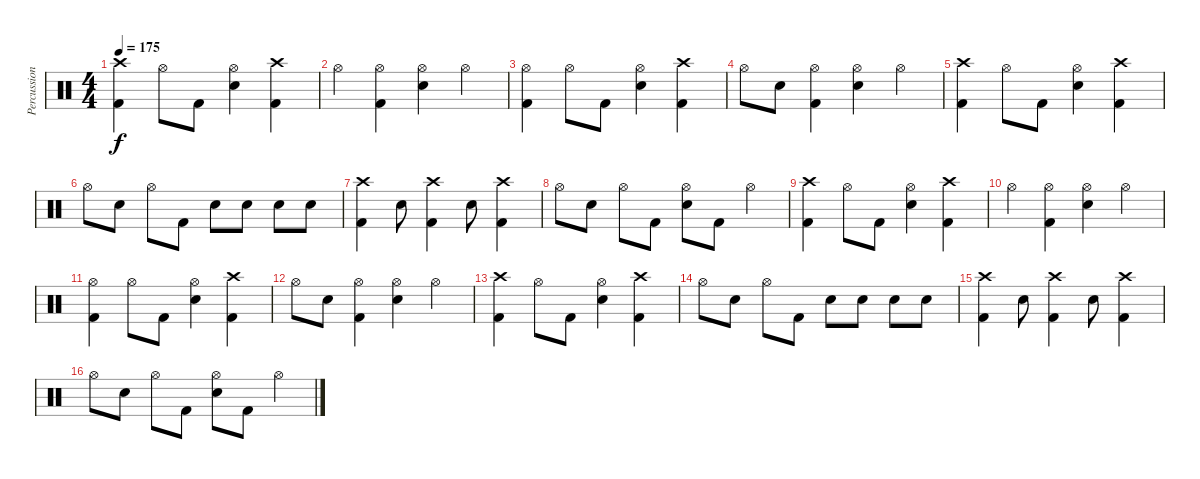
\track ("Percussion" "Percussion") {instrument percussion}
\staff {score}
\articulation defaults
\ts (4 4)
\tempo 175
\clef neutral
\ks c
("Crash high (hit)" "Kick (hit) 2").4{dy f} "Hi-Hat (open)".8 "Kick (hit) 2".8 ("Hi-Hat (open)" "Electric Snare (hit)").4 ("Crash high (hit)" "Kick (hit) 2").4 |
"Hi-Hat (open)".4 ("Hi-Hat (open)" "Kick (hit) 2").4 ("Hi-Hat (open)" "Electric Snare (hit)").4 "Hi-Hat (open)".4 |
("Hi-Hat (open)" "Kick (hit) 2").4 "Hi-Hat (open)".8 "Kick (hit) 2".8 ("Hi-Hat (open)" "Electric Snare (hit)").4 ("Crash high (hit)" "Kick (hit) 2").4 |
"Hi-Hat (open)".8 "Electric Snare (hit)".8 ("Hi-Hat (open)" "Kick (hit) 2").4 ("Hi-Hat (open)" "Electric Snare (hit)").4 "Hi-Hat (open)".4 |
("Crash high (hit)" "Kick (hit) 2").4 "Hi-Hat (open)".8 "Kick (hit) 2".8 ("Hi-Hat (open)" "Electric Snare (hit)").4 ("Crash high (hit)" "Kick (hit) 2").4 |
"Hi-Hat (open)".8 "Electric Snare (hit)".8 "Hi-Hat (open)".8 "Kick (hit) 2".8 "Electric Snare (hit)".8 "Electric Snare (hit)".8 "Electric Snare (hit)".8 "Electric Snare (hit)".8 |
("Crash high (hit)" "Kick (hit) 2").4 "Electric Snare (hit)".8 ("Crash high (hit)" "Kick (hit) 2").4 "Electric Snare (hit)".8 ("Crash high (hit)" "Kick (hit) 2").4 |
"Hi-Hat (open)".8 "Electric Snare (hit)".8 "Hi-Hat (open)".8 "Kick (hit) 2".8 ("Hi-Hat (open)" "Electric Snare (hit)").8 "Kick (hit) 2".8 "Hi-Hat (open)".4 |
("Crash high (hit)" "Kick (hit) 2").4 "Hi-Hat (open)".8 "Kick (hit) 2".8 ("Hi-Hat (open)" "Electric Snare (hit)").4 ("Crash high (hit)" "Kick (hit) 2").4 |
"Hi-Hat (open)".4 ("Hi-Hat (open)" "Kick (hit) 2").4 ("Hi-Hat (open)" "Electric Snare (hit)").4 "Hi-Hat (open)".4 |
("Hi-Hat (open)" "Kick (hit) 2").4 "Hi-Hat (open)".8 "Kick (hit) 2".8 ("Hi-Hat (open)" "Electric Snare (hit)").4 ("Crash high (hit)" "Kick (hit) 2").4 |
"Hi-Hat (open)".8 "Electric Snare (hit)".8 ("Hi-Hat (open)" "Kick (hit) 2").4 ("Hi-Hat (open)" "Electric Snare (hit)").4 "Hi-Hat (open)".4 |
("Crash high (hit)" "Kick (hit) 2").4 "Hi-Hat (open)".8 "Kick (hit) 2".8 ("Hi-Hat (open)" "Electric Snare (hit)").4 ("Crash high (hit)" "Kick (hit) 2").4 |
"Hi-Hat (open)".8 "Electric Snare (hit)".8 "Hi-Hat (open)".8 "Kick (hit) 2".8 "Electric Snare (hit)".8 "Electric Snare (hit)".8 "Electric Snare (hit)".8 "Electric Snare (hit)".8 |
("Crash high (hit)" "Kick (hit) 2").4 "Electric Snare (hit)".8 ("Crash high (hit)" "Kick (hit) 2").4 "Electric Snare (hit)".8 ("Crash high (hit)" "Kick (hit) 2").4 |
"Hi-Hat (open)".8 "Electric Snare (hit)".8 "Hi-Hat (open)".8 "Kick (hit) 2".8 ("Hi-Hat (open)" "Electric Snare (hit)").8 "Kick (hit) 2".8 "Hi-Hat (open)".4
